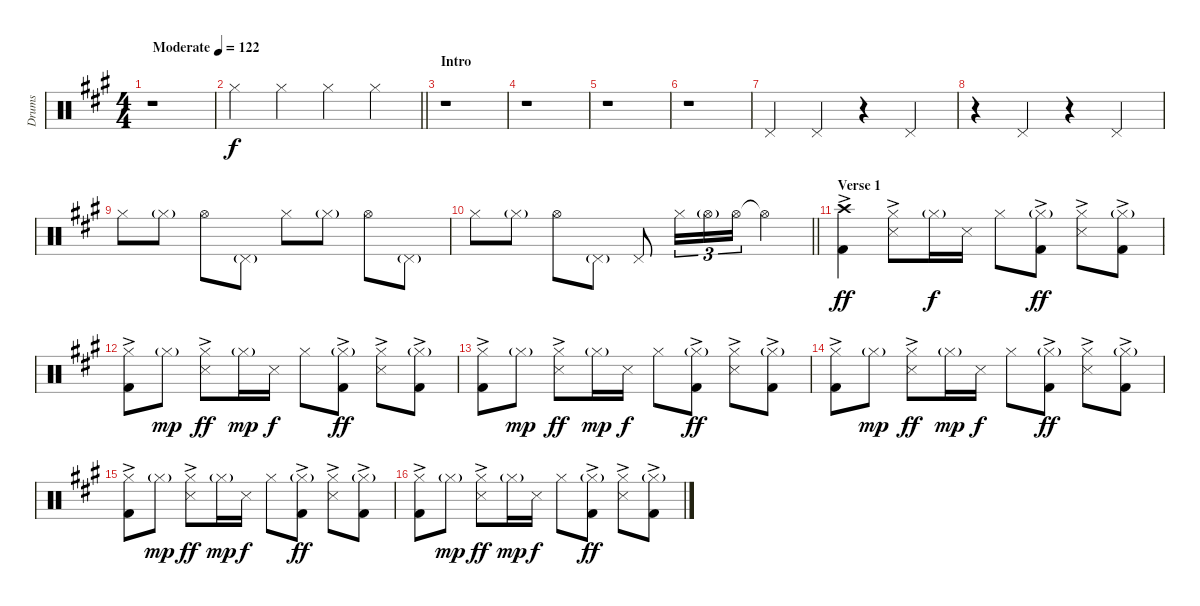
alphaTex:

\track ("Drums" "Drums") {instrument percussion}
\staff {score}
\articulation defaults
\ts (4 4)
\tempo (122 "Moderate")
\clef neutral
\ks a
r.1{dy f} |
\barLineRight lightlight "Hi-Hat (closed)".4 "Hi-Hat (closed)".4 "Hi-Hat (closed)".4 "Hi-Hat (closed)".4
|
\section ("" "Intro")
r.1 |
r.1 |
r.1 |
r.1 |
"Pedal Hi-Hat (hit)".4 "Pedal Hi-Hat (hit)".4 r.4 "Pedal Hi-Hat (hit)".4 |
r.4 "Pedal Hi-Hat (hit)".4 r.4 "Pedal Hi-Hat (hit)".4 |
"Hi-Hat (closed)".8 "Hi-Hat (closed)"{g}.8 "Hi-Hat (open)".8 "Pedal Hi-Hat (hit)"{g}.8 "Hi-Hat (closed)".8 "Hi-Hat (closed)"{g}.8 "Hi-Hat (open)".8 "Pedal Hi-Hat (hit)"{g}.8 |
\barLineRight lightlight "Hi-Hat (closed)".8 "Hi-Hat (closed)"{g}.8 "Hi-Hat (open)".8 "Pedal Hi-Hat (hit)"{g}.8 "Pedal Hi-Hat (hit)".8 "Hi-Hat (closed)".16{tu (3 2)} "Hi-Hat (open)"{g}.16{tu (3 2)} "Hi-Hat (open)".16{tu (3 2)} "Hi-Hat (open)"{t}.4
|
\section ("" "Verse 1")
("Crash high (hit)" "Kick (hit) 2"{ac}).4{dy ff} ("Hi-Hat (closed)" "Snare (side stick) 3"{ac}).8 "Hi-Hat (closed)"{g}.16{dy f} "Snare (side stick) 3".16 "Hi-Hat (closed)".8 ("Hi-Hat (closed)"{g} "Kick (hit) 2"{ac}).8{dy ff} ("Hi-Hat (closed)" "Snare (side stick) 3"{ac}).8 ("Hi-Hat (closed)"{g} "Kick (hit) 2"{ac}).8 |
("Hi-Hat (closed)" "Kick (hit) 2"{ac}).8 "Hi-Hat (closed)"{g}.8{dy mp} ("Hi-Hat (closed)" "Snare (side stick) 3"{ac}).8{dy ff} "Hi-Hat (closed)"{g}.16{dy mp} "Snare (side stick) 3".16{dy f} "Hi-Hat (closed)".8 ("Hi-Hat (closed)"{g} "Kick (hit) 2"{ac}).8{dy ff} ("Hi-Hat (closed)" "Snare (side stick) 3"{ac}).8 ("Hi-Hat (closed)"{g} "Kick (hit) 2"{ac}).8 |
("Hi-Hat (closed)" "Kick (hit) 2"{ac}).8 "Hi-Hat (closed)"{g}.8{dy mp} ("Hi-Hat (closed)" "Snare (side stick) 3"{ac}).8{dy ff} "Hi-Hat (closed)"{g}.16{dy mp} "Snare (side stick) 3".16{dy f} "Hi-Hat (closed)".8 ("Hi-Hat (closed)"{g} "Kick (hit) 2"{ac}).8{dy ff} ("Hi-Hat (closed)" "Snare (side stick) 3"{ac}).8 ("Hi-Hat (closed)"{g} "Kick (hit) 2"{ac}).8 |
("Hi-Hat (closed)" "Kick (hit) 2"{ac}).8 "Hi-Hat (closed)"{g}.8{dy mp} ("Hi-Hat (closed)" "Snare (side stick) 3"{ac}).8{dy ff} "Hi-Hat (closed)"{g}.16{dy mp} "Snare (side stick) 3".16{dy f} "Hi-Hat (closed)".8 ("Hi-Hat (closed)"{g} "Kick (hit) 2"{ac}).8{dy ff} ("Hi-Hat (closed)" "Snare (side stick) 3"{ac}).8 ("Hi-Hat (closed)"{g} "Kick (hit) 2"{ac}).8 |
("Hi-Hat (closed)" "Kick (hit) 2"{ac}).8 "Hi-Hat (closed)"{g}.8{dy mp} ("Hi-Hat (closed)" "Snare (side stick) 3"{ac}).8{dy ff} "Hi-Hat (closed)"{g}.16{dy mp} "Snare (side stick) 3".16{dy f} "Hi-Hat (closed)".8 ("Hi-Hat (closed)"{g} "Kick (hit) 2"{ac}).8{dy ff} ("Hi-Hat (closed)" "Snare (side stick) 3"{ac}).8 ("Hi-Hat (closed)"{g} "Kick (hit) 2"{ac}).8 |
("Hi-Hat (closed)" "Kick (hit) 2"{ac}).8 "Hi-Hat (closed)"{g}.8{dy mp} ("Hi-Hat (closed)" "Snare (side stick) 3"{ac}).8{dy ff} "Hi-Hat (closed)"{g}.16{dy mp} "Snare (side stick) 3".16{dy f} "Hi-Hat (closed)".8 ("Hi-Hat (closed)"{g} "Kick (hit) 2"{ac}).8{dy ff} ("Hi-Hat (closed)" "Snare (side stick) 3"{ac}).8 ("Hi-Hat (closed)"{g} "Kick (hit) 2"{ac}).8
